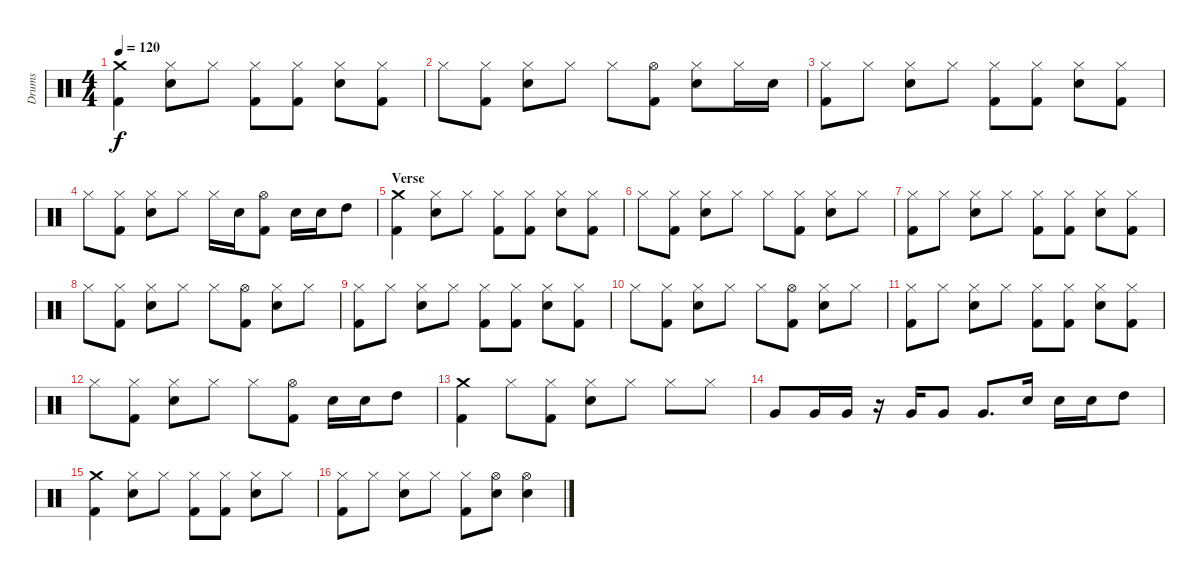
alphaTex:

\track ("Drums" "Drums") {instrument percussion}
\staff {score}
\articulation defaults
\ts (4 4)
\tempo 120
\clef neutral
\ks c
("Crash medium (hit)" "Kick (hit) 2").4{dy f} ("Hi-Hat (closed)" "Snare (hit) 2").8 "Hi-Hat (closed)".8 ("Hi-Hat (closed)" "Kick (hit) 2").8 ("Hi-Hat (closed)" "Kick (hit) 2").8 ("Hi-Hat (closed)" "Snare (hit) 2").8 ("Hi-Hat (closed)" "Kick (hit) 2").8 |
"Hi-Hat (closed)".8 ("Hi-Hat (closed)" "Kick (hit) 2").8 ("Hi-Hat (closed)" "Snare (hit) 2").8 "Hi-Hat (closed)".8 "Hi-Hat (closed)".8 ("Hi-Hat (open)" "Kick (hit) 2").8 ("Hi-Hat (closed)" "Snare (hit) 2").8 "Hi-Hat (closed)".16 "Snare (hit) 2".16 |
("Hi-Hat (closed)" "Kick (hit) 2").8 "Hi-Hat (closed)".8 ("Hi-Hat (closed)" "Snare (hit) 2").8 "Hi-Hat (closed)".8 ("Hi-Hat (closed)" "Kick (hit) 2").8 ("Hi-Hat (closed)" "Kick (hit) 2").8 ("Hi-Hat (closed)" "Snare (hit) 2").8 ("Hi-Hat (closed)" "Kick (hit) 2").8 |
"Hi-Hat (closed)".8 ("Hi-Hat (closed)" "Kick (hit) 2").8 ("Hi-Hat (closed)" "Snare (hit) 2").8 "Hi-Hat (closed)".8 "Hi-Hat (closed)".16 "Snare (hit) 2".16 ("Hi-Hat (open)" "Kick (hit) 2").8 "Snare (hit) 2".16 "Snare (hit) 2".16 "High Tom (hit)".8 |
\section ("" "Verse")
("Crash medium (hit)" "Kick (hit) 2").4 ("Hi-Hat (closed)" "Snare (hit) 2").8 "Hi-Hat (closed)".8 ("Hi-Hat (closed)" "Kick (hit) 2").8 ("Hi-Hat (closed)" "Kick (hit) 2").8 ("Hi-Hat (closed)" "Snare (hit) 2").8 ("Hi-Hat (closed)" "Kick (hit) 2").8 |
"Hi-Hat (closed)".8 ("Hi-Hat (closed)" "Kick (hit) 2").8 ("Hi-Hat (closed)" "Snare (hit) 2").8 "Hi-Hat (closed)".8 "Hi-Hat (closed)".8 ("Hi-Hat (closed)" "Kick (hit) 2").8 ("Hi-Hat (closed)" "Snare (hit) 2").8 "Hi-Hat (closed)".8 |
("Hi-Hat (closed)" "Kick (hit) 2").8 "Hi-Hat (closed)".8 ("Hi-Hat (closed)" "Snare (hit) 2").8 "Hi-Hat (closed)".8 ("Hi-Hat (closed)" "Kick (hit) 2").8 ("Hi-Hat (closed)" "Kick (hit) 2").8 ("Hi-Hat (closed)" "Snare (hit) 2").8 ("Hi-Hat (closed)" "Kick (hit) 2").8 |
"Hi-Hat (closed)".8 ("Hi-Hat (closed)" "Kick (hit) 2").8 ("Hi-Hat (closed)" "Snare (hit) 2").8 "Hi-Hat (closed)".8 "Hi-Hat (closed)".8 ("Hi-Hat (open)" "Kick (hit) 2").8 ("Hi-Hat (closed)" "Snare (hit) 2").8 "Hi-Hat (closed)".8 |
("Hi-Hat (closed)" "Kick (hit) 2").8 "Hi-Hat (closed)".8 ("Hi-Hat (closed)" "Snare (hit) 2").8 "Hi-Hat (closed)".8 ("Hi-Hat (closed)" "Kick (hit) 2").8 ("Hi-Hat (closed)" "Kick (hit) 2").8 ("Hi-Hat (closed)" "Snare (hit) 2").8 ("Hi-Hat (closed)" "Kick (hit) 2").8 |
"Hi-Hat (closed)".8 ("Hi-Hat (closed)" "Kick (hit) 2").8 ("Hi-Hat (closed)" "Snare (hit) 2").8 "Hi-Hat (closed)".8 "Hi-Hat (closed)".8 ("Hi-Hat (open)" "Kick (hit) 2").8 ("Hi-Hat (closed)" "Snare (hit) 2").8 "Hi-Hat (closed)".8 |
("Hi-Hat (closed)" "Kick (hit) 2").8 "Hi-Hat (closed)".8 ("Hi-Hat (closed)" "Snare (hit) 2").8 "Hi-Hat (closed)".8 ("Hi-Hat (closed)" "Kick (hit) 2").8 ("Hi-Hat (closed)" "Kick (hit) 2").8 ("Hi-Hat (closed)" "Snare (hit) 2").8 ("Hi-Hat (closed)" "Kick (hit) 2").8 |
"Hi-Hat (closed)".8 ("Hi-Hat (closed)" "Kick (hit) 2").8 ("Hi-Hat (closed)" "Snare (hit) 2").8 "Hi-Hat (closed)".8 "Hi-Hat (closed)".8 ("Hi-Hat (open)" "Kick (hit) 2").8 "Snare (hit) 2".16 "Snare (hit) 2".16 "High Tom (hit)".8 |
("Crash medium (hit)" "Kick (hit) 2").4 "Hi-Hat (closed)".8 ("Hi-Hat (closed)" "Kick (hit) 2").8 ("Hi-Hat (closed)" "Snare (hit) 2").8 "Hi-Hat (closed)".8 "Hi-Hat (closed)".8 "Hi-Hat (closed)".8 |
"Very Low Tom (hit)".8 "Very Low Tom (hit)".16 "Very Low Tom (hit)".16 r.16 "Very Low Tom (hit)".16 "Very Low Tom (hit)".8 "Very Low Tom (hit)".8{d} "Snare (hit) 2".16 "Snare (hit) 2".16 "Snare (hit) 2".16 "High Tom (hit)".8 |
("Crash medium (hit)" "Kick (hit) 2").4 ("Hi-Hat (closed)" "Snare (hit) 2").8 "Hi-Hat (closed)".8 ("Hi-Hat (closed)" "Kick (hit) 2").8 ("Hi-Hat (closed)" "Kick (hit) 2").8 ("Hi-Hat (closed)" "Snare (hit) 2").8 "Hi-Hat (closed)".8 |
("Hi-Hat (closed)" "Kick (hit) 2").8 "Hi-Hat (closed)".8 ("Hi-Hat (closed)" "Snare (hit) 2").8 "Hi-Hat (closed)".8 ("Hi-Hat (closed)" "Kick (hit) 2").8 ("Hi-Hat (open)" "Snare (hit) 2").8 ("Hi-Hat (open)" "Snare (hit) 2").4
